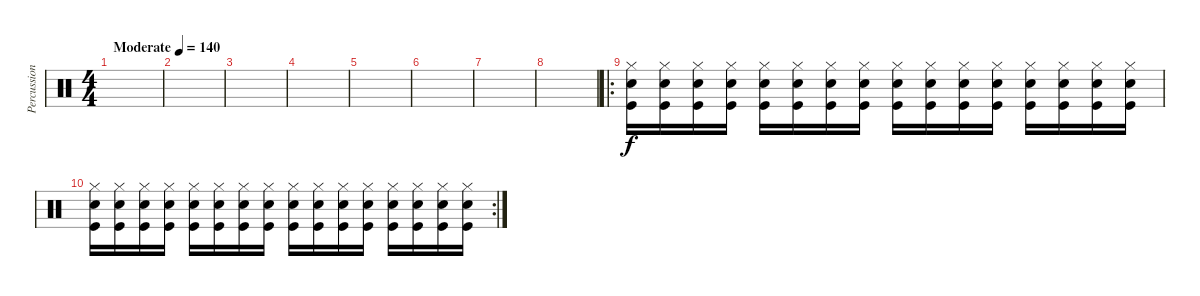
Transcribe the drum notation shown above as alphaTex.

\track ("Percussion" "Percussion") {instrument percussion}
\staff {score}
\articulation defaults
\ts (4 4)
\tempo (140 "Moderate")
\clef neutral
\ks c
|
|
|
|
|
|
|
|
\ro
("Hi-Hat (closed)" "Snare (hit) 2" "Kick (hit)").16 ("Hi-Hat (closed)" "Snare (hit) 2" "Kick (hit)").16 ("Hi-Hat (closed)" "Snare (hit) 2" "Kick (hit)").16 ("Hi-Hat (closed)" "Snare (hit) 2" "Kick (hit)").16 ("Hi-Hat (closed)" "Snare (hit) 2" "Kick (hit)").16 ("Hi-Hat (closed)" "Snare (hit) 2" "Kick (hit)").16 ("Hi-Hat (closed)" "Snare (hit) 2" "Kick (hit)").16 ("Hi-Hat (closed)" "Snare (hit) 2" "Kick (hit)").16 ("Hi-Hat (closed)" "Snare (hit) 2" "Kick (hit)").16 ("Hi-Hat (closed)" "Snare (hit) 2" "Kick (hit)").16 ("Hi-Hat (closed)" "Snare (hit) 2" "Kick (hit)").16 ("Hi-Hat (closed)" "Snare (hit) 2" "Kick (hit)").16 ("Hi-Hat (closed)" "Snare (hit) 2" "Kick (hit)").16 ("Hi-Hat (closed)" "Snare (hit) 2" "Kick (hit)").16 ("Hi-Hat (closed)" "Snare (hit) 2" "Kick (hit)").16 ("Hi-Hat (closed)" "Snare (hit) 2" "Kick (hit)").16 |
\rc 2
("Hi-Hat (closed)" "Snare (hit) 2" "Kick (hit)").16 ("Hi-Hat (closed)" "Snare (hit) 2" "Kick (hit)").16 ("Hi-Hat (closed)" "Snare (hit) 2" "Kick (hit)").16 ("Hi-Hat (closed)" "Snare (hit) 2" "Kick (hit)").16 ("Hi-Hat (closed)" "Snare (hit) 2" "Kick (hit)").16 ("Hi-Hat (closed)" "Snare (hit) 2" "Kick (hit)").16 ("Hi-Hat (closed)" "Snare (hit) 2" "Kick (hit)").16 ("Hi-Hat (closed)" "Snare (hit) 2" "Kick (hit)").16 ("Hi-Hat (closed)" "Snare (hit) 2" "Kick (hit)").16 ("Hi-Hat (closed)" "Snare (hit) 2" "Kick (hit)").16 ("Hi-Hat (closed)" "Snare (hit) 2" "Kick (hit)").16 ("Hi-Hat (closed)" "Snare (hit) 2" "Kick (hit)").16 ("Hi-Hat (closed)" "Snare (hit) 2" "Kick (hit)").16 ("Hi-Hat (closed)" "Snare (hit) 2" "Kick (hit)").16 ("Hi-Hat (closed)" "Snare (hit) 2" "Kick (hit)").16 ("Hi-Hat (closed)" "Snare (hit) 2" "Kick (hit)").16
